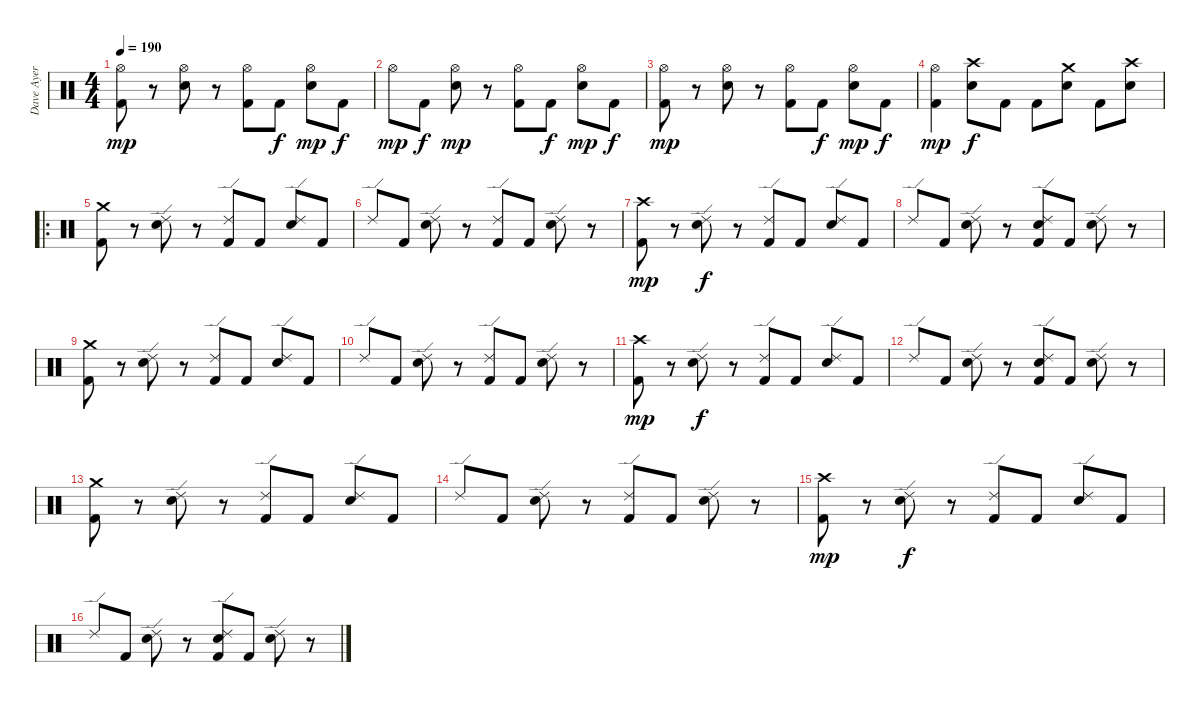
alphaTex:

\track ("Dave Ayer" "Dave Ayer") {instrument percussion}
\staff {score}
\articulation defaults
\ts (4 4)
\tempo 190
\clef neutral
\ks c
("Hi-Hat (open)" "Kick (hit) 2").8{dy mp} r.8 ("Hi-Hat (open)" "Snare (hit) 2").8 r.8 ("Hi-Hat (open)" "Kick (hit) 2").8 "Kick (hit) 2".8{dy f} ("Hi-Hat (open)" "Snare (hit) 2").8{dy mp} "Kick (hit) 2".8{dy f} |
"Hi-Hat (open)".8{dy mp} "Kick (hit) 2".8{dy f} ("Hi-Hat (open)" "Snare (hit) 2").8{dy mp} r.8 ("Hi-Hat (open)" "Kick (hit) 2").8 "Kick (hit) 2".8{dy f} ("Hi-Hat (open)" "Snare (hit) 2").8{dy mp} "Kick (hit) 2".8{dy f} |
("Hi-Hat (open)" "Kick (hit) 2").8{dy mp} r.8 ("Hi-Hat (open)" "Snare (hit) 2").8 r.8 ("Hi-Hat (open)" "Kick (hit) 2").8 "Kick (hit) 2".8{dy f} ("Hi-Hat (open)" "Snare (hit) 2").8{dy mp} "Kick (hit) 2".8{dy f} |
("Hi-Hat (open)" "Kick (hit) 2").4{dy mp} ("Crash high (hit)" "Snare (hit) 2").8{dy f} "Kick (hit) 2".8 "Kick (hit) 2".8 ("Crash medium (hit)" "Snare (hit) 2").8 "Kick (hit) 2".8 ("Crash high (hit)" "Snare (hit) 2").8 |
\ro
("Crash medium (hit)" "Kick (hit) 2").8 r.8 ("Ride (edge) 2" "Snare (hit) 2").8 r.8 ("Ride (edge) 2" "Kick (hit) 2").8 "Kick (hit) 2".8 ("Ride (edge) 2" "Snare (hit) 2").8 "Kick (hit) 2".8 |
"Ride (edge) 2".8 "Kick (hit) 2".8 ("Ride (edge) 2" "Snare (hit) 2").8 r.8 ("Ride (edge) 2" "Kick (hit) 2").8 "Kick (hit) 2".8 ("Ride (edge) 2" "Snare (hit) 2").8 r.8 |
("Crash high (hit)" "Kick (hit) 2").8{dy mp} r.8 ("Ride (edge) 2" "Snare (hit) 2").8{dy f} r.8 ("Ride (edge) 2" "Kick (hit) 2").8 "Kick (hit) 2".8 ("Ride (edge) 2" "Snare (hit) 2").8 "Kick (hit) 2".8 |
"Ride (edge) 2".8 "Kick (hit) 2".8 ("Ride (edge) 2" "Snare (hit) 2").8 r.8 ("Ride (edge) 2" "Snare (hit) 2" "Kick (hit) 2").8 "Kick (hit) 2".8 ("Ride (edge) 2" "Snare (hit) 2").8 r.8 |
("Crash medium (hit)" "Kick (hit) 2").8 r.8 ("Ride (edge) 2" "Snare (hit) 2").8 r.8 ("Ride (edge) 2" "Kick (hit) 2").8 "Kick (hit) 2".8 ("Ride (edge) 2" "Snare (hit) 2").8 "Kick (hit) 2".8 |
"Ride (edge) 2".8 "Kick (hit) 2".8 ("Ride (edge) 2" "Snare (hit) 2").8 r.8 ("Ride (edge) 2" "Kick (hit) 2").8 "Kick (hit) 2".8 ("Ride (edge) 2" "Snare (hit) 2").8 r.8 |
("Crash high (hit)" "Kick (hit) 2").8{dy mp} r.8 ("Ride (edge) 2" "Snare (hit) 2").8{dy f} r.8 ("Ride (edge) 2" "Kick (hit) 2").8 "Kick (hit) 2".8 ("Ride (edge) 2" "Snare (hit) 2").8 "Kick (hit) 2".8 |
"Ride (edge) 2".8 "Kick (hit) 2".8 ("Ride (edge) 2" "Snare (hit) 2").8 r.8 ("Ride (edge) 2" "Snare (hit) 2" "Kick (hit) 2").8 "Kick (hit) 2".8 ("Ride (edge) 2" "Snare (hit) 2").8 r.8 |
("Crash medium (hit)" "Kick (hit) 2").8 r.8 ("Ride (edge) 2" "Snare (hit) 2").8 r.8 ("Ride (edge) 2" "Kick (hit) 2").8 "Kick (hit) 2".8 ("Ride (edge) 2" "Snare (hit) 2").8 "Kick (hit) 2".8 |
"Ride (edge) 2".8 "Kick (hit) 2".8 ("Ride (edge) 2" "Snare (hit) 2").8 r.8 ("Ride (edge) 2" "Kick (hit) 2").8 "Kick (hit) 2".8 ("Ride (edge) 2" "Snare (hit) 2").8 r.8 |
("Crash high (hit)" "Kick (hit) 2").8{dy mp} r.8 ("Ride (edge) 2" "Snare (hit) 2").8{dy f} r.8 ("Ride (edge) 2" "Kick (hit) 2").8 "Kick (hit) 2".8 ("Ride (edge) 2" "Snare (hit) 2").8 "Kick (hit) 2".8 |
"Ride (edge) 2".8 "Kick (hit) 2".8 ("Ride (edge) 2" "Snare (hit) 2").8 r.8 ("Ride (edge) 2" "Snare (hit) 2" "Kick (hit) 2").8 "Kick (hit) 2".8 ("Ride (edge) 2" "Snare (hit) 2").8 r.8
